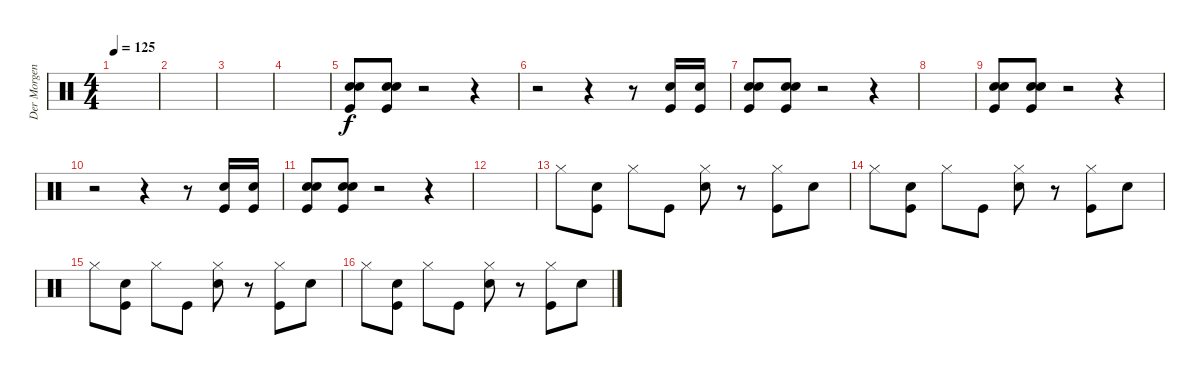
\track ("Der Morgenstern" "Der Morgen") {instrument percussion}
\staff {score}
\articulation defaults
\ts (4 4)
\tempo 125
\clef neutral
\ks c
|
|
|
|
("Snare (hit) 2" "Snare (hit) 2" "Kick (hit)").8 ("Snare (hit) 2" "Snare (hit) 2" "Kick (hit)").8 r.2 r.4 |
r.2 r.4 r.8 ("Snare (hit) 2" "Kick (hit)").16 ("Snare (hit) 2" "Kick (hit)").16 |
("Snare (hit) 2" "Snare (hit) 2" "Kick (hit)").8 ("Snare (hit) 2" "Snare (hit) 2" "Kick (hit)").8 r.2 r.4 |
|
("Snare (hit) 2" "Snare (hit) 2" "Kick (hit)").8 ("Snare (hit) 2" "Snare (hit) 2" "Kick (hit)").8 r.2 r.4 |
r.2 r.4 r.8 ("Snare (hit) 2" "Kick (hit)").16 ("Snare (hit) 2" "Kick (hit)").16 |
("Snare (hit) 2" "Snare (hit) 2" "Kick (hit)").8 ("Snare (hit) 2" "Snare (hit) 2" "Kick (hit)").8 r.2 r.4 |
|
"Hi-Hat (closed)".8 ("Snare (hit) 2" "Kick (hit)").8 "Hi-Hat (closed)".8 "Kick (hit)".8 ("Hi-Hat (closed)" "Snare (hit) 2").8 r.8 ("Hi-Hat (closed)" "Kick (hit)").8 "Snare (hit) 2".8 |
"Hi-Hat (closed)".8 ("Snare (hit) 2" "Kick (hit)").8 "Hi-Hat (closed)".8 "Kick (hit)".8 ("Hi-Hat (closed)" "Snare (hit) 2").8 r.8 ("Hi-Hat (closed)" "Kick (hit)").8 "Snare (hit) 2".8 |
"Hi-Hat (closed)".8 ("Snare (hit) 2" "Kick (hit)").8 "Hi-Hat (closed)".8 "Kick (hit)".8 ("Hi-Hat (closed)" "Snare (hit) 2").8 r.8 ("Hi-Hat (closed)" "Kick (hit)").8 "Snare (hit) 2".8 |
"Hi-Hat (closed)".8 ("Snare (hit) 2" "Kick (hit)").8 "Hi-Hat (closed)".8 "Kick (hit)".8 ("Hi-Hat (closed)" "Snare (hit) 2").8 r.8 ("Hi-Hat (closed)" "Kick (hit)").8 "Snare (hit) 2".8
